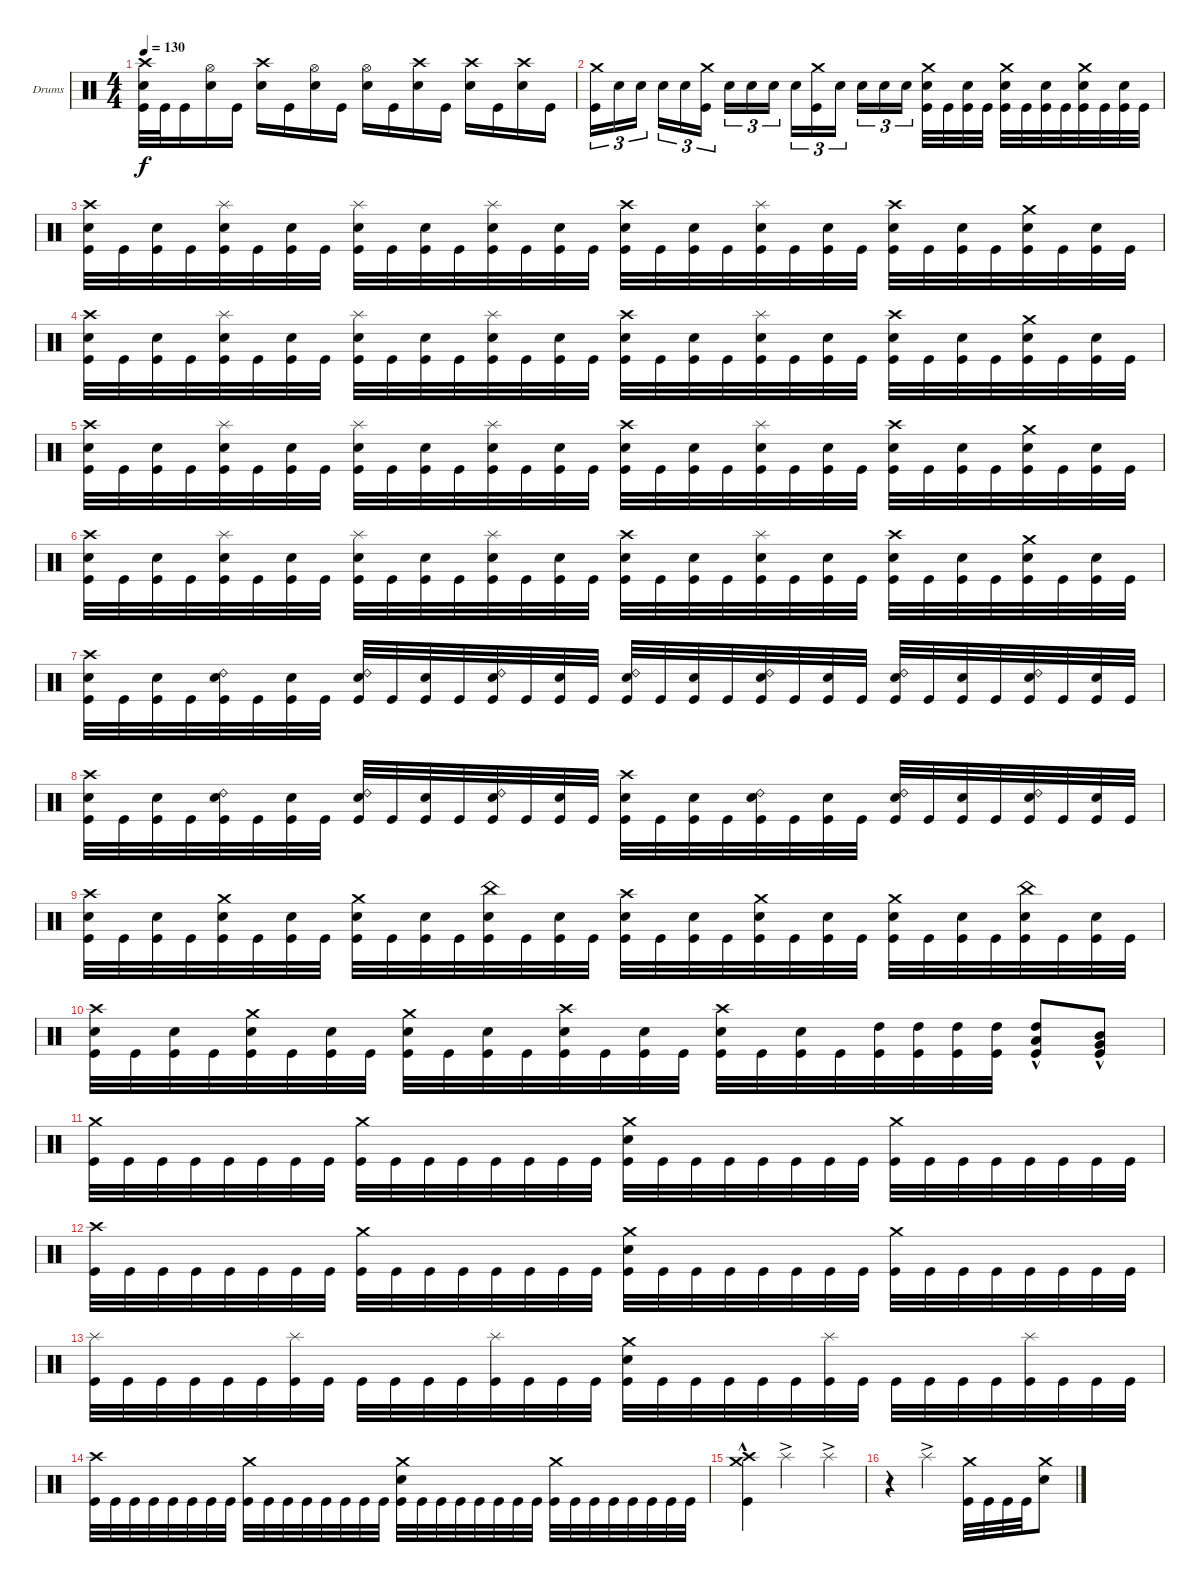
\defaultSystemsLayout 4
\bracketExtendMode groupsimilarinstruments
\firstSystemTrackNameOrientation horizontal
\otherSystemsTrackNameOrientation horizontal
\track ("Drumkit" "Drums") {instrument percussion}
\staff {score}
\articulation defaults
\ts (4 4)
\tempo 130
\clef neutral
\scale
0.333333
\ks c
("Kick (hit)" "Snare (hit) 2" "Crash high (hit)").32{dy f} "Kick (hit)".32 "Kick (hit)".16 ("Snare (hit) 2" "Hi-Hat (open)").16 "Kick (hit)".16 ("Snare (hit) 2" "Crash high (hit)").16 "Kick (hit)".16 ("Snare (hit) 2" "Hi-Hat (open)").16 "Kick (hit)".16 ("Snare (hit) 2" "Hi-Hat (open)").16 "Kick (hit)".16 ("Snare (hit) 2" "Crash high (hit)").16 "Kick (hit)".16 ("Snare (hit) 2" "Crash high (hit)").16 "Kick (hit)".16 ("Snare (hit) 2" "Crash high (hit)").16 "Kick (hit)".16 |
\scale
0.333333 ("Kick (hit)" "Crash medium (hit)").16{tu (3 2)} "Snare (hit) 2".16{tu (3 2)} "Snare (hit) 2".16{tu (3 2)} "Snare (hit) 2".16{tu (3 2)} "Snare (hit) 2".16{tu (3 2)} ("Kick (hit)" "Crash medium (hit)").16{tu (3 2)} "Snare (hit) 2".16{tu (3 2)} "Snare (hit) 2".16{tu (3 2)} "Snare (hit) 2".16{tu (3 2)} "Snare (hit) 2".16{tu (3 2)} ("Kick (hit)" "Crash medium (hit)").16{tu (3 2)} "Snare (hit) 2".16{tu (3 2)} "Snare (hit) 2".16{tu (3 2)} "Snare (hit) 2".16{tu (3 2)} "Snare (hit) 2".16{tu (3 2)} ("Snare (hit) 2" "Kick (hit)" "Crash medium (hit)").32 "Kick (hit)".32 ("Snare (hit) 2" "Kick (hit)").32 "Kick (hit)".32 ("Snare (hit) 2" "Kick (hit)" "Crash medium (hit)").32 "Kick (hit)".32 ("Snare (hit) 2" "Kick (hit)").32 "Kick (hit)".32 ("Snare (hit) 2" "Kick (hit)" "Crash medium (hit)").32 "Kick (hit)".32 ("Snare (hit) 2" "Kick (hit)").32 "Kick (hit)".32 |
\scale
0.333333 ("Snare (hit) 2" "Kick (hit)" "Crash high (hit)").32 "Kick (hit)".32 ("Snare (hit) 2" "Kick (hit)").32 "Kick (hit)".32 ("Snare (hit) 2" "Kick (hit)" "Splash (hit)").32 "Kick (hit)".32 ("Snare (hit) 2" "Kick (hit)").32 "Kick (hit)".32 ("Snare (hit) 2" "Kick (hit)" "Splash (hit)").32 "Kick (hit)".32 ("Snare (hit) 2" "Kick (hit)").32 "Kick (hit)".32 ("Snare (hit) 2" "Kick (hit)" "Splash (hit)").32 "Kick (hit)".32 ("Snare (hit) 2" "Kick (hit)").32 "Kick (hit)".32 ("Snare (hit) 2" "Kick (hit)" "Crash high (hit)").32 "Kick (hit)".32 ("Snare (hit) 2" "Kick (hit)").32 "Kick (hit)".32 ("Snare (hit) 2" "Kick (hit)" "Splash (hit)").32 "Kick (hit)".32 ("Snare (hit) 2" "Kick (hit)").32 "Kick (hit)".32 ("Snare (hit) 2" "Kick (hit)" "Crash high (hit)").32 "Kick (hit)".32 ("Snare (hit) 2" "Kick (hit)").32 "Kick (hit)".32 ("Snare (hit) 2" "Kick (hit)" "Crash medium (hit)").32 "Kick (hit)".32 ("Snare (hit) 2" "Kick (hit)").32 "Kick (hit)".32 |
\scale
0.333333 ("Snare (hit) 2" "Kick (hit)" "Crash high (hit)").32 "Kick (hit)".32 ("Snare (hit) 2" "Kick (hit)").32 "Kick (hit)".32 ("Snare (hit) 2" "Kick (hit)" "Splash (hit)").32 "Kick (hit)".32 ("Snare (hit) 2" "Kick (hit)").32 "Kick (hit)".32 ("Snare (hit) 2" "Kick (hit)" "Splash (hit)").32 "Kick (hit)".32 ("Snare (hit) 2" "Kick (hit)").32 "Kick (hit)".32 ("Snare (hit) 2" "Kick (hit)" "Splash (hit)").32 "Kick (hit)".32 ("Snare (hit) 2" "Kick (hit)").32 "Kick (hit)".32 ("Snare (hit) 2" "Kick (hit)" "Crash high (hit)").32 "Kick (hit)".32 ("Snare (hit) 2" "Kick (hit)").32 "Kick (hit)".32 ("Snare (hit) 2" "Kick (hit)" "Splash (hit)").32 "Kick (hit)".32 ("Snare (hit) 2" "Kick (hit)").32 "Kick (hit)".32 ("Snare (hit) 2" "Kick (hit)" "Crash high (hit)").32 "Kick (hit)".32 ("Snare (hit) 2" "Kick (hit)").32 "Kick (hit)".32 ("Snare (hit) 2" "Kick (hit)" "Crash medium (hit)").32 "Kick (hit)".32 ("Snare (hit) 2" "Kick (hit)").32 "Kick (hit)".32 |
\scale
0.333333 ("Snare (hit) 2" "Kick (hit)" "Crash high (hit)").32 "Kick (hit)".32 ("Snare (hit) 2" "Kick (hit)").32 "Kick (hit)".32 ("Snare (hit) 2" "Kick (hit)" "Splash (hit)").32 "Kick (hit)".32 ("Snare (hit) 2" "Kick (hit)").32 "Kick (hit)".32 ("Snare (hit) 2" "Kick (hit)" "Splash (hit)").32 "Kick (hit)".32 ("Snare (hit) 2" "Kick (hit)").32 "Kick (hit)".32 ("Snare (hit) 2" "Kick (hit)" "Splash (hit)").32 "Kick (hit)".32 ("Snare (hit) 2" "Kick (hit)").32 "Kick (hit)".32 ("Snare (hit) 2" "Kick (hit)" "Crash high (hit)").32 "Kick (hit)".32 ("Snare (hit) 2" "Kick (hit)").32 "Kick (hit)".32 ("Snare (hit) 2" "Kick (hit)" "Splash (hit)").32 "Kick (hit)".32 ("Snare (hit) 2" "Kick (hit)").32 "Kick (hit)".32 ("Snare (hit) 2" "Kick (hit)" "Crash high (hit)").32 "Kick (hit)".32 ("Snare (hit) 2" "Kick (hit)").32 "Kick (hit)".32 ("Snare (hit) 2" "Kick (hit)" "Crash medium (hit)").32 "Kick (hit)".32 ("Snare (hit) 2" "Kick (hit)").32 "Kick (hit)".32 |
\scale
0.333333 ("Snare (hit) 2" "Kick (hit)" "Crash high (hit)").32 "Kick (hit)".32 ("Snare (hit) 2" "Kick (hit)").32 "Kick (hit)".32 ("Snare (hit) 2" "Kick (hit)" "Splash (hit)").32 "Kick (hit)".32 ("Snare (hit) 2" "Kick (hit)").32 "Kick (hit)".32 ("Snare (hit) 2" "Kick (hit)" "Splash (hit)").32 "Kick (hit)".32 ("Snare (hit) 2" "Kick (hit)").32 "Kick (hit)".32 ("Snare (hit) 2" "Kick (hit)" "Splash (hit)").32 "Kick (hit)".32 ("Snare (hit) 2" "Kick (hit)").32 "Kick (hit)".32 ("Snare (hit) 2" "Kick (hit)" "Crash high (hit)").32 "Kick (hit)".32 ("Snare (hit) 2" "Kick (hit)").32 "Kick (hit)".32 ("Snare (hit) 2" "Kick (hit)" "Splash (hit)").32 "Kick (hit)".32 ("Snare (hit) 2" "Kick (hit)").32 "Kick (hit)".32 ("Snare (hit) 2" "Kick (hit)" "Crash high (hit)").32 "Kick (hit)".32 ("Snare (hit) 2" "Kick (hit)").32 "Kick (hit)".32 ("Snare (hit) 2" "Kick (hit)" "Crash medium (hit)").32 "Kick (hit)".32 ("Snare (hit) 2" "Kick (hit)").32 "Kick (hit)".32 |
\scale
0.333333 ("Snare (hit) 2" "Kick (hit)" "Crash high (hit)").32 "Kick (hit)".32 ("Snare (hit) 2" "Kick (hit)").32 "Kick (hit)".32 ("Snare (hit) 2" "Kick (hit)" "Ride (bell) 2").32 "Kick (hit)".32 ("Snare (hit) 2" "Kick (hit)").32 "Kick (hit)".32 ("Snare (hit) 2" "Kick (hit)" "Ride (bell) 2").32 "Kick (hit)".32 ("Snare (hit) 2" "Kick (hit)").32 "Kick (hit)".32 ("Snare (hit) 2" "Kick (hit)" "Ride (bell) 2").32 "Kick (hit)".32 ("Snare (hit) 2" "Kick (hit)").32 "Kick (hit)".32 ("Snare (hit) 2" "Kick (hit)" "Ride (bell) 2").32 "Kick (hit)".32 ("Snare (hit) 2" "Kick (hit)").32 "Kick (hit)".32 ("Snare (hit) 2" "Kick (hit)" "Ride (bell) 2").32 "Kick (hit)".32 ("Snare (hit) 2" "Kick (hit)").32 "Kick (hit)".32 ("Snare (hit) 2" "Kick (hit)" "Ride (bell) 2").32 "Kick (hit)".32 ("Snare (hit) 2" "Kick (hit)").32 "Kick (hit)".32 ("Snare (hit) 2" "Kick (hit)" "Ride (bell) 2").32 "Kick (hit)".32 ("Snare (hit) 2" "Kick (hit)").32 "Kick (hit)".32 |
\scale
0.333333 ("Snare (hit) 2" "Kick (hit)" "Crash high (hit)").32 "Kick (hit)".32 ("Snare (hit) 2" "Kick (hit)").32 "Kick (hit)".32 ("Snare (hit) 2" "Kick (hit)" "Ride (bell) 2").32 "Kick (hit)".32 ("Snare (hit) 2" "Kick (hit)").32 "Kick (hit)".32 ("Snare (hit) 2" "Kick (hit)" "Ride (bell) 2").32 "Kick (hit)".32 ("Snare (hit) 2" "Kick (hit)").32 "Kick (hit)".32 ("Snare (hit) 2" "Kick (hit)" "Ride (bell) 2").32 "Kick (hit)".32 ("Snare (hit) 2" "Kick (hit)").32 "Kick (hit)".32 ("Snare (hit) 2" "Kick (hit)" "Crash high (hit)").32 "Kick (hit)".32 ("Snare (hit) 2" "Kick (hit)").32 "Kick (hit)".32 ("Snare (hit) 2" "Kick (hit)" "Ride (bell) 2").32 "Kick (hit)".32 ("Snare (hit) 2" "Kick (hit)").32 "Kick (hit)".32 ("Snare (hit) 2" "Kick (hit)" "Ride (bell) 2").32 "Kick (hit)".32 ("Snare (hit) 2" "Kick (hit)").32 "Kick (hit)".32 ("Snare (hit) 2" "Kick (hit)" "Ride (bell) 2").32 "Kick (hit)".32 ("Snare (hit) 2" "Kick (hit)").32 "Kick (hit)".32 |
\scale
0.333333 ("Snare (hit) 2" "Kick (hit)" "Crash high (hit)").32 "Kick (hit)".32 ("Snare (hit) 2" "Kick (hit)").32 "Kick (hit)".32 ("Snare (hit) 2" "Kick (hit)" "Crash medium (hit)").32 "Kick (hit)".32 ("Snare (hit) 2" "Kick (hit)").32 "Kick (hit)".32 ("Snare (hit) 2" "Kick (hit)" "Crash medium (hit)").32 "Kick (hit)".32 ("Snare (hit) 2" "Kick (hit)").32 "Kick (hit)".32 ("Snare (hit) 2" "Kick (hit)" "China (hit)").32 "Kick (hit)".32 ("Snare (hit) 2" "Kick (hit)").32 "Kick (hit)".32 ("Snare (hit) 2" "Kick (hit)" "Crash high (hit)").32 "Kick (hit)".32 ("Snare (hit) 2" "Kick (hit)").32 "Kick (hit)".32 ("Snare (hit) 2" "Kick (hit)" "Crash medium (hit)").32 "Kick (hit)".32 ("Snare (hit) 2" "Kick (hit)").32 "Kick (hit)".32 ("Snare (hit) 2" "Kick (hit)" "Crash medium (hit)").32 "Kick (hit)".32 ("Snare (hit) 2" "Kick (hit)").32 "Kick (hit)".32 ("Snare (hit) 2" "Kick (hit)" "China (hit)").32 "Kick (hit)".32 ("Snare (hit) 2" "Kick (hit)").32 "Kick (hit)".32 |
\scale
0.333333 ("Snare (hit) 2" "Kick (hit)" "Crash high (hit)").32 "Kick (hit)".32 ("Snare (hit) 2" "Kick (hit)").32 "Kick (hit)".32 ("Snare (hit) 2" "Kick (hit)" "Crash medium (hit)").32 "Kick (hit)".32 ("Snare (hit) 2" "Kick (hit)").32 "Kick (hit)".32 ("Snare (hit) 2" "Kick (hit)" "Crash medium (hit)").32 "Kick (hit)".32 ("Snare (hit) 2" "Kick (hit)").32 "Kick (hit)".32 ("Snare (hit) 2" "Kick (hit)" "Crash high (hit)").32 "Kick (hit)".32 ("Snare (hit) 2" "Kick (hit)").32 "Kick (hit)".32 ("Snare (hit) 2" "Kick (hit)" "Crash high (hit)").32 "Kick (hit)".32 ("Snare (hit) 2" "Kick (hit)").32 "Kick (hit)".32 ("Kick (hit)" "High Tom (hit)").32 ("Kick (hit)" "High Tom (hit)").32 ("Kick (hit)" "High Tom (hit)").32 ("Kick (hit)" "High Tom (hit)").32 ("Kick (hit)"{hac} "Low Tom (hit)"{hac} "High Tom (hit)"{hac}).8 ("Kick (hit)"{hac} "Very Low Tom (hit)"{hac} "Mid Tom (hit)"{hac}).8 |
\scale
0.333333 ("Kick (hit)" "Crash medium (hit)").32 "Kick (hit)".32 "Kick (hit)".32 "Kick (hit)".32 "Kick (hit)".32 "Kick (hit)".32 "Kick (hit)".32 "Kick (hit)".32 ("Kick (hit)" "Crash medium (hit)").32 "Kick (hit)".32 "Kick (hit)".32 "Kick (hit)".32 "Kick (hit)".32 "Kick (hit)".32 "Kick (hit)".32 "Kick (hit)".32 ("Kick (hit)" "Crash medium (hit)" "Snare (hit) 2").32 "Kick (hit)".32 "Kick (hit)".32 "Kick (hit)".32 "Kick (hit)".32 "Kick (hit)".32 "Kick (hit)".32 "Kick (hit)".32 ("Kick (hit)" "Crash medium (hit)").32 "Kick (hit)".32 "Kick (hit)".32 "Kick (hit)".32 "Kick (hit)".32 "Kick (hit)".32 "Kick (hit)".32 "Kick (hit)".32 |
\scale
0.333333 ("Kick (hit)" "Crash high (hit)").32 "Kick (hit)".32 "Kick (hit)".32 "Kick (hit)".32 "Kick (hit)".32 "Kick (hit)".32 "Kick (hit)".32 "Kick (hit)".32 ("Kick (hit)" "Crash medium (hit)").32 "Kick (hit)".32 "Kick (hit)".32 "Kick (hit)".32 "Kick (hit)".32 "Kick (hit)".32 "Kick (hit)".32 "Kick (hit)".32 ("Kick (hit)" "Crash medium (hit)" "Snare (hit) 2").32 "Kick (hit)".32 "Kick (hit)".32 "Kick (hit)".32 "Kick (hit)".32 "Kick (hit)".32 "Kick (hit)".32 "Kick (hit)".32 ("Kick (hit)" "Crash medium (hit)").32 "Kick (hit)".32 "Kick (hit)".32 "Kick (hit)".32 "Kick (hit)".32 "Kick (hit)".32 "Kick (hit)".32 "Kick (hit)".32 |
\scale
0.333333 ("Kick (hit)" "Splash (hit)").32 "Kick (hit)".32 "Kick (hit)".32 "Kick (hit)".32 "Kick (hit)".32 "Kick (hit)".32 ("Kick (hit)" "Splash (hit)").32 "Kick (hit)".32 "Kick (hit)".32 "Kick (hit)".32 "Kick (hit)".32 "Kick (hit)".32 ("Kick (hit)" "Splash (hit)").32 "Kick (hit)".32 "Kick (hit)".32 "Kick (hit)".32 ("Kick (hit)" "Snare (hit) 2" "Crash medium (hit)").32 "Kick (hit)".32 "Kick (hit)".32 "Kick (hit)".32 "Kick (hit)".32 "Kick (hit)".32 ("Kick (hit)" "Splash (hit)").32 "Kick (hit)".32 "Kick (hit)".32 "Kick (hit)".32 "Kick (hit)".32 "Kick (hit)".32 ("Kick (hit)" "Splash (hit)").32 "Kick (hit)".32 "Kick (hit)".32 "Kick (hit)".32 |
\scale
0.333333 ("Kick (hit)" "Crash high (hit)").32 "Kick (hit)".32 "Kick (hit)".32 "Kick (hit)".32 "Kick (hit)".32 "Kick (hit)".32 "Kick (hit)".32 "Kick (hit)".32 ("Kick (hit)" "Crash medium (hit)").32 "Kick (hit)".32 "Kick (hit)".32 "Kick (hit)".32 "Kick (hit)".32 "Kick (hit)".32 "Kick (hit)".32 "Kick (hit)".32 ("Kick (hit)" "Crash medium (hit)" "Snare (hit) 2").32 "Kick (hit)".32 "Kick (hit)".32 "Kick (hit)".32 "Kick (hit)".32 "Kick (hit)".32 "Kick (hit)".32 "Kick (hit)".32 ("Kick (hit)" "Crash medium (hit)").32 "Kick (hit)".32 "Kick (hit)".32 "Kick (hit)".32 "Kick (hit)".32 "Kick (hit)".32 "Kick (hit)".32 "Kick (hit)".32 |
\scale
0.333333 ("Kick (hit)"{hac} "Crash high (hit)"{hac} "Crash medium (hit)"{hac}).4 "Splash (hit)"{ac}.2 "Splash (hit)"{ac}.4 |
\scale
0.333333 r.4 "Splash (hit)"{ac}.2 ("Kick (hit)" "Crash medium (hit)").32 "Kick (hit)".32 "Kick (hit)".32 "Kick (hit)".32 ("Snare (hit) 2" "Crash medium (hit)").8
